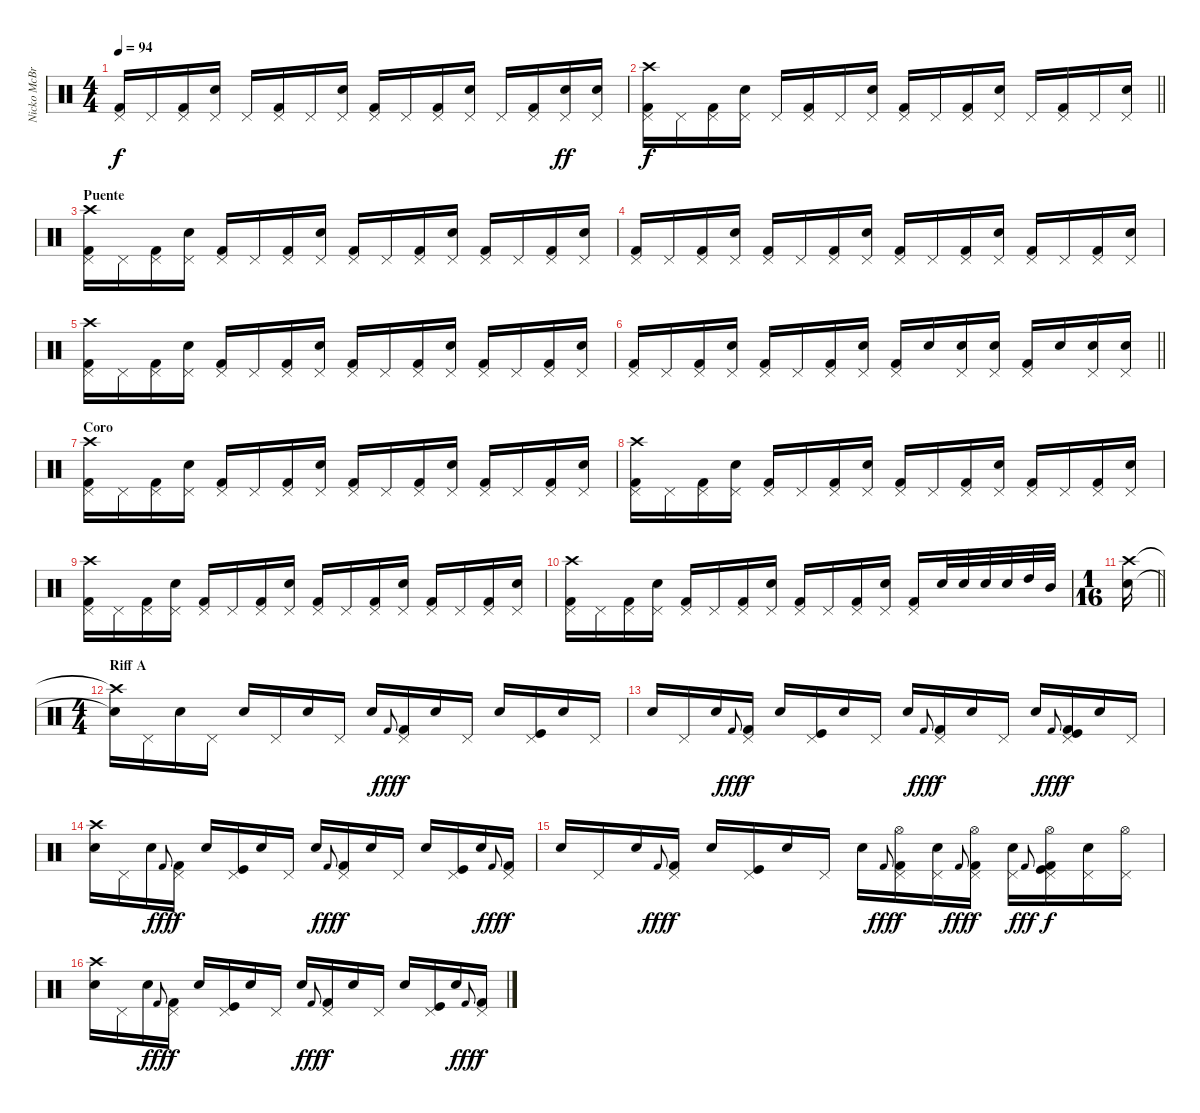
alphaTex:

\track ("Nicko McBrain" "Nicko McBr") {instrument percussion}
\staff {score}
\articulation defaults
\ts (4 4)
\tempo 94
\clef neutral
\ks c
("Kick (hit) 2" "Pedal Hi-Hat (hit)").16{dy f} "Pedal Hi-Hat (hit)".16 ("Kick (hit) 2" "Pedal Hi-Hat (hit)").16 ("Snare (hit) 2" "Pedal Hi-Hat (hit)").16 "Pedal Hi-Hat (hit)".16 ("Kick (hit) 2" "Pedal Hi-Hat (hit)").16 "Pedal Hi-Hat (hit)".16 ("Snare (hit) 2" "Pedal Hi-Hat (hit)").16 ("Kick (hit) 2" "Pedal Hi-Hat (hit)").16 "Pedal Hi-Hat (hit)".16 ("Kick (hit) 2" "Pedal Hi-Hat (hit)").16 ("Snare (hit) 2" "Pedal Hi-Hat (hit)").16 "Pedal Hi-Hat (hit)".16 ("Kick (hit) 2" "Pedal Hi-Hat (hit)").16 ("Snare (hit) 2" "Pedal Hi-Hat (hit)").16{dy ff} ("Snare (hit) 2" "Pedal Hi-Hat (hit)").16 |
\barLineRight lightlight
("Kick (hit) 2" "Pedal Hi-Hat (hit)" "Crash high (hit)").16{dy f} "Pedal Hi-Hat (hit)".16 ("Kick (hit) 2" "Pedal Hi-Hat (hit)").16 ("Snare (hit) 2" "Pedal Hi-Hat (hit)").16 "Pedal Hi-Hat (hit)".16 ("Kick (hit) 2" "Pedal Hi-Hat (hit)").16 "Pedal Hi-Hat (hit)".16 ("Snare (hit) 2" "Pedal Hi-Hat (hit)").16 ("Kick (hit) 2" "Pedal Hi-Hat (hit)").16 "Pedal Hi-Hat (hit)".16 ("Kick (hit) 2" "Pedal Hi-Hat (hit)").16 ("Snare (hit) 2" "Pedal Hi-Hat (hit)").16 "Pedal Hi-Hat (hit)".16 ("Kick (hit) 2" "Pedal Hi-Hat (hit)").16 "Pedal Hi-Hat (hit)".16 ("Snare (hit) 2" "Pedal Hi-Hat (hit)").16 |
\section ("" "Puente")
("Kick (hit) 2" "Pedal Hi-Hat (hit)" "Crash high (hit)").16 "Pedal Hi-Hat (hit)".16 ("Kick (hit) 2" "Pedal Hi-Hat (hit)").16 ("Snare (hit) 2" "Pedal Hi-Hat (hit)").16 ("Kick (hit) 2" "Pedal Hi-Hat (hit)").16 "Pedal Hi-Hat (hit)".16 ("Kick (hit) 2" "Pedal Hi-Hat (hit)").16 ("Snare (hit) 2" "Pedal Hi-Hat (hit)").16 ("Kick (hit) 2" "Pedal Hi-Hat (hit)").16 "Pedal Hi-Hat (hit)".16 ("Kick (hit) 2" "Pedal Hi-Hat (hit)").16 ("Snare (hit) 2" "Pedal Hi-Hat (hit)").16 ("Kick (hit) 2" "Pedal Hi-Hat (hit)").16 "Pedal Hi-Hat (hit)".16 ("Kick (hit) 2" "Pedal Hi-Hat (hit)").16 ("Snare (hit) 2" "Pedal Hi-Hat (hit)").16 |
("Kick (hit) 2" "Pedal Hi-Hat (hit)").16 "Pedal Hi-Hat (hit)".16 ("Kick (hit) 2" "Pedal Hi-Hat (hit)").16 ("Snare (hit) 2" "Pedal Hi-Hat (hit)").16 ("Kick (hit) 2" "Pedal Hi-Hat (hit)").16 "Pedal Hi-Hat (hit)".16 ("Kick (hit) 2" "Pedal Hi-Hat (hit)").16 ("Snare (hit) 2" "Pedal Hi-Hat (hit)").16 ("Kick (hit) 2" "Pedal Hi-Hat (hit)").16 "Pedal Hi-Hat (hit)".16 ("Kick (hit) 2" "Pedal Hi-Hat (hit)").16 ("Snare (hit) 2" "Pedal Hi-Hat (hit)").16 ("Kick (hit) 2" "Pedal Hi-Hat (hit)").16 "Pedal Hi-Hat (hit)".16 ("Kick (hit) 2" "Pedal Hi-Hat (hit)").16 ("Snare (hit) 2" "Pedal Hi-Hat (hit)").16 |
("Kick (hit) 2" "Pedal Hi-Hat (hit)" "Crash high (hit)").16 "Pedal Hi-Hat (hit)".16 ("Kick (hit) 2" "Pedal Hi-Hat (hit)").16 ("Snare (hit) 2" "Pedal Hi-Hat (hit)").16 ("Kick (hit) 2" "Pedal Hi-Hat (hit)").16 "Pedal Hi-Hat (hit)".16 ("Kick (hit) 2" "Pedal Hi-Hat (hit)").16 ("Snare (hit) 2" "Pedal Hi-Hat (hit)").16 ("Kick (hit) 2" "Pedal Hi-Hat (hit)").16 "Pedal Hi-Hat (hit)".16 ("Kick (hit) 2" "Pedal Hi-Hat (hit)").16 ("Snare (hit) 2" "Pedal Hi-Hat (hit)").16 ("Kick (hit) 2" "Pedal Hi-Hat (hit)").16 "Pedal Hi-Hat (hit)".16 ("Kick (hit) 2" "Pedal Hi-Hat (hit)").16 ("Snare (hit) 2" "Pedal Hi-Hat (hit)").16 |
\barLineRight lightlight
("Kick (hit) 2" "Pedal Hi-Hat (hit)").16 "Pedal Hi-Hat (hit)".16 ("Kick (hit) 2" "Pedal Hi-Hat (hit)").16 ("Snare (hit) 2" "Pedal Hi-Hat (hit)").16 ("Kick (hit) 2" "Pedal Hi-Hat (hit)").16 "Pedal Hi-Hat (hit)".16 ("Kick (hit) 2" "Pedal Hi-Hat (hit)").16 ("Snare (hit) 2" "Pedal Hi-Hat (hit)").16 ("Kick (hit) 2" "Pedal Hi-Hat (hit)").16 "Snare (hit) 2".16 ("Snare (hit) 2" "Pedal Hi-Hat (hit)").16 ("Snare (hit) 2" "Pedal Hi-Hat (hit)").16 ("Kick (hit) 2" "Pedal Hi-Hat (hit)").16 "Snare (hit) 2".16 ("Snare (hit) 2" "Pedal Hi-Hat (hit)").16 ("Snare (hit) 2" "Pedal Hi-Hat (hit)").16 |
\section ("" "Coro")
("Kick (hit) 2" "Pedal Hi-Hat (hit)" "Crash high (hit)").16 "Pedal Hi-Hat (hit)".16 ("Kick (hit) 2" "Pedal Hi-Hat (hit)").16 ("Snare (hit) 2" "Pedal Hi-Hat (hit)").16 ("Kick (hit) 2" "Pedal Hi-Hat (hit)").16 "Pedal Hi-Hat (hit)".16 ("Kick (hit) 2" "Pedal Hi-Hat (hit)").16 ("Snare (hit) 2" "Pedal Hi-Hat (hit)").16 ("Kick (hit) 2" "Pedal Hi-Hat (hit)").16 "Pedal Hi-Hat (hit)".16 ("Kick (hit) 2" "Pedal Hi-Hat (hit)").16 ("Snare (hit) 2" "Pedal Hi-Hat (hit)").16 ("Kick (hit) 2" "Pedal Hi-Hat (hit)").16 "Pedal Hi-Hat (hit)".16 ("Kick (hit) 2" "Pedal Hi-Hat (hit)").16 ("Snare (hit) 2" "Pedal Hi-Hat (hit)").16 |
("Kick (hit) 2" "Pedal Hi-Hat (hit)" "Crash high (hit)").16 "Pedal Hi-Hat (hit)".16 ("Kick (hit) 2" "Pedal Hi-Hat (hit)").16 ("Snare (hit) 2" "Pedal Hi-Hat (hit)").16 ("Kick (hit) 2" "Pedal Hi-Hat (hit)").16 "Pedal Hi-Hat (hit)".16 ("Kick (hit) 2" "Pedal Hi-Hat (hit)").16 ("Snare (hit) 2" "Pedal Hi-Hat (hit)").16 ("Kick (hit) 2" "Pedal Hi-Hat (hit)").16 "Pedal Hi-Hat (hit)".16 ("Kick (hit) 2" "Pedal Hi-Hat (hit)").16 ("Snare (hit) 2" "Pedal Hi-Hat (hit)").16 ("Kick (hit) 2" "Pedal Hi-Hat (hit)").16 "Pedal Hi-Hat (hit)".16 ("Kick (hit) 2" "Pedal Hi-Hat (hit)").16 ("Snare (hit) 2" "Pedal Hi-Hat (hit)").16 |
("Kick (hit) 2" "Pedal Hi-Hat (hit)" "Crash high (hit)").16 "Pedal Hi-Hat (hit)".16 ("Kick (hit) 2" "Pedal Hi-Hat (hit)").16 ("Snare (hit) 2" "Pedal Hi-Hat (hit)").16 ("Kick (hit) 2" "Pedal Hi-Hat (hit)").16 "Pedal Hi-Hat (hit)".16 ("Kick (hit) 2" "Pedal Hi-Hat (hit)").16 ("Snare (hit) 2" "Pedal Hi-Hat (hit)").16 ("Kick (hit) 2" "Pedal Hi-Hat (hit)").16 "Pedal Hi-Hat (hit)".16 ("Kick (hit) 2" "Pedal Hi-Hat (hit)").16 ("Snare (hit) 2" "Pedal Hi-Hat (hit)").16 ("Kick (hit) 2" "Pedal Hi-Hat (hit)").16 "Pedal Hi-Hat (hit)".16 ("Kick (hit) 2" "Pedal Hi-Hat (hit)").16 ("Snare (hit) 2" "Pedal Hi-Hat (hit)").16 |
("Kick (hit) 2" "Pedal Hi-Hat (hit)" "Crash high (hit)").16 "Pedal Hi-Hat (hit)".16 ("Kick (hit) 2" "Pedal Hi-Hat (hit)").16 ("Snare (hit) 2" "Pedal Hi-Hat (hit)").16 ("Kick (hit) 2" "Pedal Hi-Hat (hit)").16 "Pedal Hi-Hat (hit)".16 ("Kick (hit) 2" "Pedal Hi-Hat (hit)").16 ("Snare (hit) 2" "Pedal Hi-Hat (hit)").16 ("Kick (hit) 2" "Pedal Hi-Hat (hit)").16 "Pedal Hi-Hat (hit)".16 ("Kick (hit) 2" "Pedal Hi-Hat (hit)").16 ("Snare (hit) 2" "Pedal Hi-Hat (hit)").16 ("Kick (hit) 2" "Pedal Hi-Hat (hit)").16 "Snare (hit) 2".32 "Snare (hit) 2".32 "Snare (hit) 2".32 "Snare (hit) 2".32 "High Tom (hit)".32 "Mid Tom (hit)".32 |
\ts (1 16)
\barLineRight lightlight
("Snare (hit) 2" "Crash high (hit)").16 |
\ts (4 4)
\section ("" "Riff A")
("Snare (hit) 2"{t} "Crash high (hit)"{t}).16 "Pedal Hi-Hat (hit)".16 "Snare (hit) 2".16 "Pedal Hi-Hat (hit)".16 "Snare (hit) 2".16 "Pedal Hi-Hat (hit)".16 "Snare (hit) 2".16 "Pedal Hi-Hat (hit)".16 "Snare (hit) 2".16 "Kick (hit) 2".8{gr onbeat dy fff} ("Pedal Hi-Hat (hit)" "Kick (hit) 2").16{dy f} "Snare (hit) 2".16 "Pedal Hi-Hat (hit)".16 "Snare (hit) 2".16 ("Kick (hit)" "Pedal Hi-Hat (hit)").16 "Snare (hit) 2".16 "Pedal Hi-Hat (hit)".16 |
"Snare (hit) 2".16 "Pedal Hi-Hat (hit)".16 "Snare (hit) 2".16 "Kick (hit) 2".8{gr onbeat dy fff} ("Pedal Hi-Hat (hit)" "Kick (hit) 2").16{dy f} "Snare (hit) 2".16 ("Kick (hit)" "Pedal Hi-Hat (hit)").16 "Snare (hit) 2".16 "Pedal Hi-Hat (hit)".16 "Snare (hit) 2".16 "Kick (hit) 2".8{gr onbeat dy fff} ("Pedal Hi-Hat (hit)" "Kick (hit) 2").16{dy f} "Snare (hit) 2".16 "Pedal Hi-Hat (hit)".16 "Snare (hit) 2".16 "Kick (hit) 2".8{gr onbeat dy fff} ("Kick (hit)" "Pedal Hi-Hat (hit)" "Kick (hit) 2").16{dy f} "Snare (hit) 2".16 "Pedal Hi-Hat (hit)".16 |
("Snare (hit) 2" "Crash high (hit)").16 "Pedal Hi-Hat (hit)".16 "Snare (hit) 2".16 "Kick (hit) 2".8{gr onbeat dy fff} ("Pedal Hi-Hat (hit)" "Kick (hit) 2").16{dy f} "Snare (hit) 2".16 ("Kick (hit)" "Pedal Hi-Hat (hit)").16 "Snare (hit) 2".16 "Pedal Hi-Hat (hit)".16 "Snare (hit) 2".16 "Kick (hit) 2".8{gr onbeat dy fff} ("Pedal Hi-Hat (hit)" "Kick (hit) 2").16{dy f} "Snare (hit) 2".16 "Pedal Hi-Hat (hit)".16 "Snare (hit) 2".16 ("Kick (hit)" "Pedal Hi-Hat (hit)").16 "Snare (hit) 2".16 "Kick (hit) 2".8{gr onbeat dy fff} ("Pedal Hi-Hat (hit)" "Kick (hit) 2").16{dy f} |
"Snare (hit) 2".16 "Pedal Hi-Hat (hit)".16 "Snare (hit) 2".16 "Kick (hit) 2".8{gr onbeat dy fff} ("Pedal Hi-Hat (hit)" "Kick (hit) 2").16{dy f} "Snare (hit) 2".16 ("Kick (hit)" "Pedal Hi-Hat (hit)").16 "Snare (hit) 2".16 "Pedal Hi-Hat (hit)".16 "Snare (hit) 2".16 "Kick (hit) 2".8{gr onbeat dy fff} ("Pedal Hi-Hat (hit)" "Hi-Hat (open)" "Kick (hit) 2").16{dy f} ("Snare (hit) 2" "Pedal Hi-Hat (hit)").16 "Kick (hit) 2".8{gr onbeat dy fff} ("Pedal Hi-Hat (hit)" "Hi-Hat (open)" "Kick (hit) 2").16{dy f} ("Snare (hit) 2" "Pedal Hi-Hat (hit)").16 "Kick (hit) 2".8{gr onbeat dy fff} ("Kick (hit)" "Pedal Hi-Hat (hit)" "Hi-Hat (open)" "Kick (hit) 2").16{dy f} ("Snare (hit) 2" "Pedal Hi-Hat (hit)").16 ("Pedal Hi-Hat (hit)" "Hi-Hat (open)").16 |
("Snare (hit) 2" "Crash high (hit)").16 "Pedal Hi-Hat (hit)".16 "Snare (hit) 2".16 "Kick (hit) 2".8{gr onbeat dy fff} ("Pedal Hi-Hat (hit)" "Kick (hit) 2").16{dy f} "Snare (hit) 2".16 ("Kick (hit)" "Pedal Hi-Hat (hit)").16 "Snare (hit) 2".16 "Pedal Hi-Hat (hit)".16 "Snare (hit) 2".16 "Kick (hit) 2".8{gr onbeat dy fff} ("Pedal Hi-Hat (hit)" "Kick (hit) 2").16{dy f} "Snare (hit) 2".16 "Pedal Hi-Hat (hit)".16 "Snare (hit) 2".16 ("Kick (hit)" "Pedal Hi-Hat (hit)").16 "Snare (hit) 2".16 "Kick (hit) 2".8{gr onbeat dy fff} ("Pedal Hi-Hat (hit)" "Kick (hit) 2").16{dy f}
